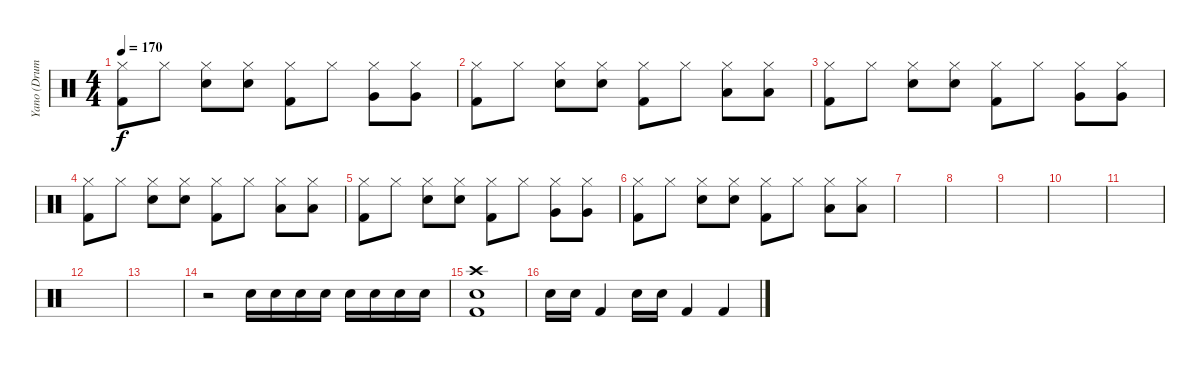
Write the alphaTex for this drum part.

\track ("Yano (Drums)" "Yano (Drum") {instrument percussion}
\staff {score}
\articulation defaults
\ts (4 4)
\tempo 170
\clef neutral
\ks c
("Hi-Hat (closed)" "Kick (hit) 2").8{dy f} "Hi-Hat (closed)".8 ("Hi-Hat (closed)" "Electric Snare (hit)").8 ("Hi-Hat (closed)" "Electric Snare (hit)").8 ("Hi-Hat (closed)" "Kick (hit) 2").8 "Hi-Hat (closed)".8 ("Hi-Hat (closed)" "Very Low Tom (hit)").8 ("Hi-Hat (closed)" "Very Low Tom (hit)").8 |
("Hi-Hat (closed)" "Kick (hit) 2").8 "Hi-Hat (closed)".8 ("Hi-Hat (closed)" "Electric Snare (hit)").8 ("Hi-Hat (closed)" "Electric Snare (hit)").8 ("Hi-Hat (closed)" "Kick (hit) 2").8 "Hi-Hat (closed)".8 ("Hi-Hat (closed)" "Low Tom (hit)").8 ("Hi-Hat (closed)" "Low Tom (hit)").8 |
("Hi-Hat (closed)" "Kick (hit) 2").8 "Hi-Hat (closed)".8 ("Hi-Hat (closed)" "Electric Snare (hit)").8 ("Hi-Hat (closed)" "Electric Snare (hit)").8 ("Hi-Hat (closed)" "Kick (hit) 2").8 "Hi-Hat (closed)".8 ("Hi-Hat (closed)" "Very Low Tom (hit)").8 ("Hi-Hat (closed)" "Very Low Tom (hit)").8 |
("Hi-Hat (closed)" "Kick (hit) 2").8 "Hi-Hat (closed)".8 ("Hi-Hat (closed)" "Electric Snare (hit)").8 ("Hi-Hat (closed)" "Electric Snare (hit)").8 ("Hi-Hat (closed)" "Kick (hit) 2").8 "Hi-Hat (closed)".8 ("Hi-Hat (closed)" "Low Tom (hit)").8 ("Hi-Hat (closed)" "Low Tom (hit)").8 |
("Hi-Hat (closed)" "Kick (hit) 2").8 "Hi-Hat (closed)".8 ("Hi-Hat (closed)" "Electric Snare (hit)").8 ("Hi-Hat (closed)" "Electric Snare (hit)").8 ("Hi-Hat (closed)" "Kick (hit) 2").8 "Hi-Hat (closed)".8 ("Hi-Hat (closed)" "Very Low Tom (hit)").8 ("Hi-Hat (closed)" "Very Low Tom (hit)").8 |
("Hi-Hat (closed)" "Kick (hit) 2").8 "Hi-Hat (closed)".8 ("Hi-Hat (closed)" "Electric Snare (hit)").8 ("Hi-Hat (closed)" "Electric Snare (hit)").8 ("Hi-Hat (closed)" "Kick (hit) 2").8 "Hi-Hat (closed)".8 ("Hi-Hat (closed)" "Low Tom (hit)").8 ("Hi-Hat (closed)" "Low Tom (hit)").8 |
|
|
|
|
|
|
|
r.2 "Electric Snare (hit)".16 "Electric Snare (hit)".16 "Electric Snare (hit)".16 "Electric Snare (hit)".16 "Electric Snare (hit)".16 "Electric Snare (hit)".16 "Electric Snare (hit)".16 "Electric Snare (hit)".16 |
("Crash high (hit)" "Electric Snare (hit)" "Kick (hit) 2").1 |
"Electric Snare (hit)".16 "Electric Snare (hit)".16 "Kick (hit) 2".4 "Electric Snare (hit)".16 "Electric Snare (hit)".16 "Kick (hit) 2".4 "Kick (hit) 2".4
